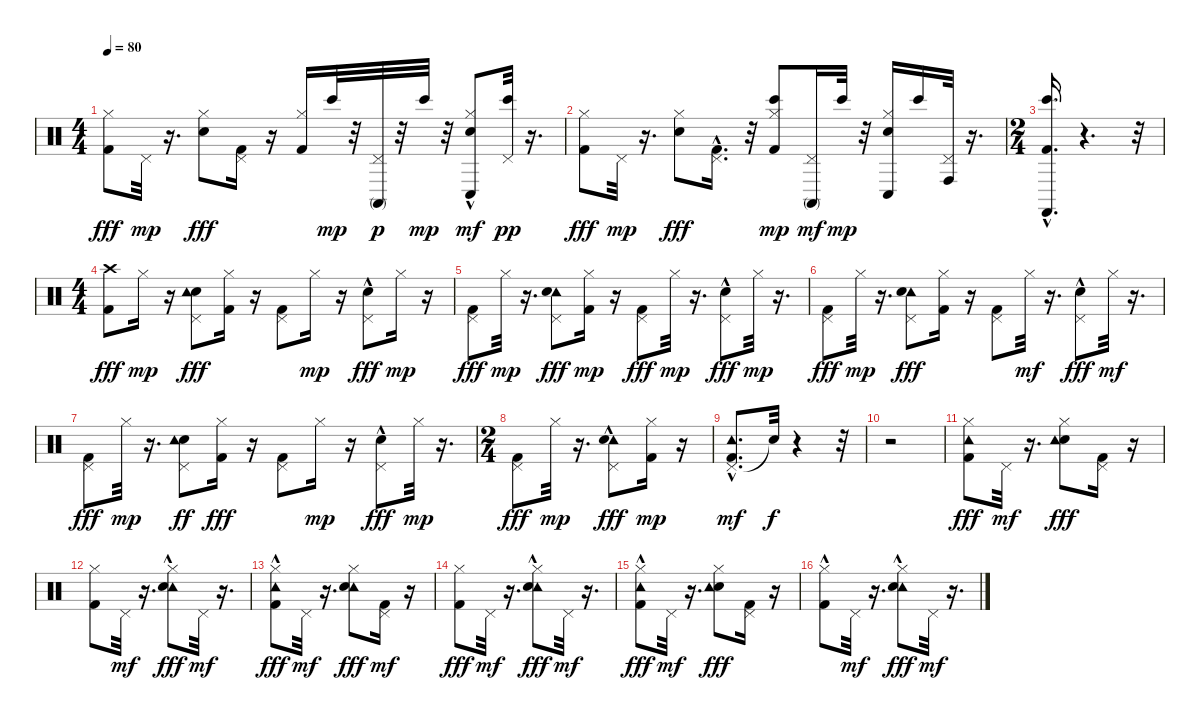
\track "" {instrument percussion}
\staff {score}
\articulation defaults
\ts (4 4)
\tempo 80
\clef neutral
\ks c
("Hi-Hat (closed)" "Kick (hit) 2").8{dy fff} "Pedal Hi-Hat (hit)".32{dy mp} r.16{d} ("Hi-Hat (closed)" "Snare (hit) 2").8{dy fff} ("Pedal Hi-Hat (hit)" "Kick (hit) 2").16 r.16 ("Hi-Hat (closed)" "Kick (hit) 2").16 "Bongo High (hit)".32{dy mp} r.32 ("Pedal Hi-Hat (hit)" "Conga high (mute)").32{dy p} r.32 "Bongo High (hit)".32{dy mp} r.32 ("Hi-Hat (closed)" "Snare (hit) 2"{hac} "Conga low (hit)").8{dy mf} ("Pedal Hi-Hat (hit)" "Bongo High (hit)").32{dy pp} r.16{d} |
("Hi-Hat (closed)" "Kick (hit) 2").8{dy fff} "Pedal Hi-Hat (hit)".32{dy mp} r.16{d} ("Hi-Hat (closed)" "Snare (hit) 2").8{dy fff} ("Pedal Hi-Hat (hit)" "Kick (hit) 2"{hac}).16{d} r.32 ("Kick (hit) 2" "Hi-Hat (closed)" "Bongo High (hit)").8{dy mp} ("Pedal Hi-Hat (hit)" "Conga high (mute)").16{dy mf} "Bongo High (hit)".32{dy mp} r.32 ("Hi-Hat (closed)" "Snare (hit) 2" "Conga low (hit)").16 "Bongo High (hit)".16 ("Pedal Hi-Hat (hit)" "Conga high (hit)").32 r.16{d} |
\ts (2 4)
("Kick (hit) 2"{hac} "Castanets (hit)" "Bongo High (hit)").16{d} r.4{d} r.32 |
\ts (4 4)
("Crash high (hit)" "Kick (hit) 2").8{dy fff} "Hi-Hat (closed)".16{dy mp} r.16 ("Pedal Hi-Hat (hit)" "Snare (hit) 2" "Tambourine (hit)").8{dy fff} ("Hi-Hat (closed)" "Kick (hit) 2").16 r.16 ("Pedal Hi-Hat (hit)" "Kick (hit) 2").8 "Hi-Hat (closed)".16{dy mp} r.16 ("Pedal Hi-Hat (hit)" "Snare (hit) 2"{hac}).8{dy fff} "Hi-Hat (closed)".16{dy mp} r.16 |
("Pedal Hi-Hat (hit)" "Kick (hit) 2").8{dy fff} "Hi-Hat (closed)".32{dy mp} r.16{d} ("Tambourine (hit)" "Pedal Hi-Hat (hit)" "Snare (hit) 2").8{dy fff} ("Kick (hit) 2" "Hi-Hat (closed)").16{dy mp} r.16 ("Pedal Hi-Hat (hit)" "Kick (hit) 2").8{dy fff} "Hi-Hat (closed)".32{dy mp} r.16{d} ("Pedal Hi-Hat (hit)" "Snare (hit) 2"{hac}).8{dy fff} "Hi-Hat (closed)".32{dy mp} r.16{d} |
("Pedal Hi-Hat (hit)" "Kick (hit) 2").8{dy fff} "Hi-Hat (closed)".32{dy mp} r.16{d} ("Tambourine (hit)" "Pedal Hi-Hat (hit)" "Snare (hit) 2").8{dy fff} ("Hi-Hat (closed)" "Kick (hit) 2").16 r.16 ("Pedal Hi-Hat (hit)" "Kick (hit) 2").8 "Hi-Hat (closed)".32{dy mf} r.16{d} ("Pedal Hi-Hat (hit)" "Snare (hit) 2"{hac}).8{dy fff} "Hi-Hat (closed)".32{dy mf} r.16{d} |
("Pedal Hi-Hat (hit)" "Kick (hit) 2").8{dy fff} "Hi-Hat (closed)".32{dy mp} r.16{d} ("Pedal Hi-Hat (hit)" "Snare (hit) 2" "Tambourine (hit)").8{dy ff} ("Hi-Hat (closed)" "Kick (hit) 2").16{dy fff} r.16 ("Pedal Hi-Hat (hit)" "Kick (hit) 2").8 "Hi-Hat (closed)".16{dy mp} r.16 ("Pedal Hi-Hat (hit)" "Snare (hit) 2"{hac}).8{dy fff} "Hi-Hat (closed)".32{dy mp} r.16{d} |
\ts (2 4)
("Pedal Hi-Hat (hit)" "Kick (hit) 2").8{dy fff} "Hi-Hat (closed)".32{dy mp} r.16{d} ("Tambourine (hit)"{hac} "Pedal Hi-Hat (hit)" "Snare (hit) 2").8{dy fff} ("Kick (hit) 2" "Hi-Hat (closed)").16{dy mp} r.16 |
("Pedal Hi-Hat (hit)" "Kick (hit) 2"{hac} "Tambourine (hit)"{hac}).8{d dy mf} "Snare (hit)"{t}.32{dy f} r.4 r.32 |
r.2 |
("Kick (hit) 2" "Hi-Hat (closed)" "Tambourine (hit)").8{dy fff} "Pedal Hi-Hat (hit)".32{dy mf} r.16{d} ("Snare (hit) 2" "Hi-Hat (closed)" "Tambourine (hit)").8{dy fff} ("Pedal Hi-Hat (hit)" "Kick (hit) 2").16 r.16 |
("Hi-Hat (closed)" "Kick (hit) 2").8 "Pedal Hi-Hat (hit)".32{dy mf} r.16{d} ("Tambourine (hit)"{hac} "Hi-Hat (closed)" "Snare (hit) 2"{hac}).8{dy fff} "Pedal Hi-Hat (hit)".32{dy mf} r.16{d} |
("Hi-Hat (closed)" "Kick (hit) 2" "Tambourine (hit)"{hac}).8{dy fff} "Pedal Hi-Hat (hit)".32{dy mf} r.16{d} ("Tambourine (hit)" "Hi-Hat (closed)" "Snare (hit) 2").8{dy fff} ("Kick (hit) 2" "Pedal Hi-Hat (hit)").16{dy mf} r.16 |
("Hi-Hat (closed)" "Kick (hit) 2").8{dy fff} "Pedal Hi-Hat (hit)".32{dy mf} r.16{d} ("Tambourine (hit)"{hac} "Hi-Hat (closed)" "Snare (hit) 2").8{dy fff} "Pedal Hi-Hat (hit)".32{dy mf} r.16{d} |
("Hi-Hat (closed)" "Kick (hit) 2" "Tambourine (hit)"{hac}).8{dy fff} "Pedal Hi-Hat (hit)".32{dy mf} r.16{d} ("Hi-Hat (closed)" "Snare (hit) 2" "Tambourine (hit)").8{dy fff} ("Pedal Hi-Hat (hit)" "Kick (hit) 2").16 r.16 |
("Hi-Hat (closed)" "Kick (hit) 2"{hac}).8 "Pedal Hi-Hat (hit)".32{dy mf} r.16{d} ("Tambourine (hit)"{hac} "Hi-Hat (closed)" "Snare (hit) 2"{hac}).8{dy fff} "Pedal Hi-Hat (hit)".32{dy mf} r.16{d}
